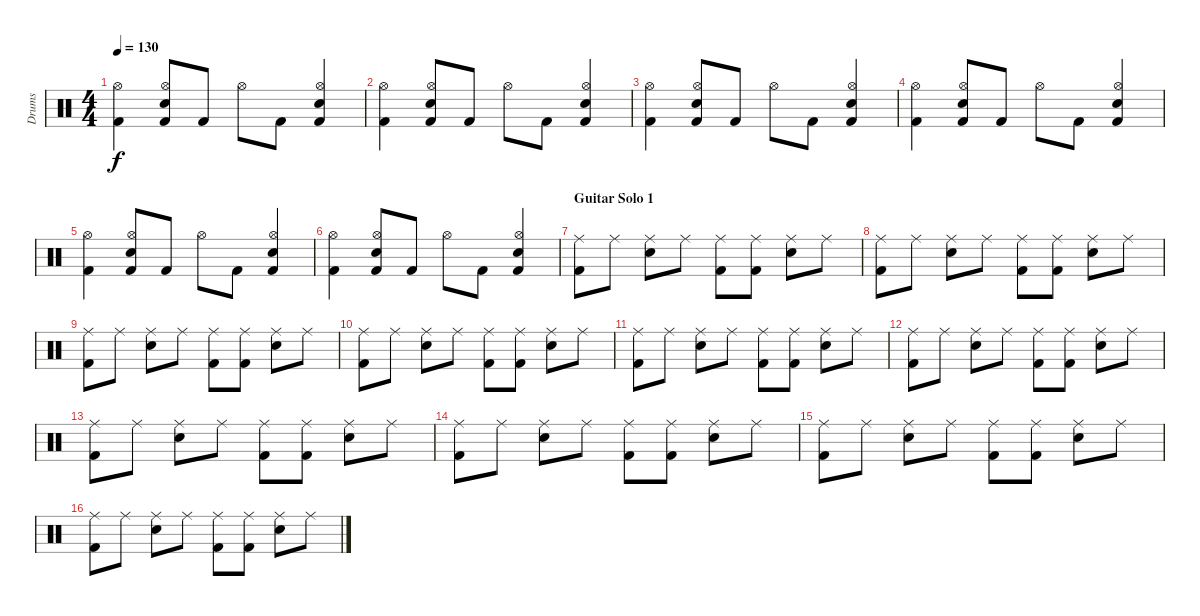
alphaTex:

\track ("Drums" "Drums") {instrument percussion}
\staff {score}
\articulation defaults
\ts (4 4)
\tempo 130
\clef neutral
\ks c
("Kick (hit) 2" "Hi-Hat (open)").4{dy f} ("Kick (hit) 2" "Hi-Hat (open)" "Snare (hit) 2").8 "Kick (hit) 2".8 "Hi-Hat (open)".8 "Kick (hit) 2".8 ("Kick (hit) 2" "Hi-Hat (open)" "Snare (hit) 2").4 |
("Kick (hit) 2" "Hi-Hat (open)").4 ("Kick (hit) 2" "Hi-Hat (open)" "Snare (hit) 2").8 "Kick (hit) 2".8 "Hi-Hat (open)".8 "Kick (hit) 2".8 ("Kick (hit) 2" "Hi-Hat (open)" "Snare (hit) 2").4 |
("Kick (hit) 2" "Hi-Hat (open)").4 ("Kick (hit) 2" "Hi-Hat (open)" "Snare (hit) 2").8 "Kick (hit) 2".8 "Hi-Hat (open)".8 "Kick (hit) 2".8 ("Kick (hit) 2" "Hi-Hat (open)" "Snare (hit) 2").4 |
("Kick (hit) 2" "Hi-Hat (open)").4 ("Kick (hit) 2" "Hi-Hat (open)" "Snare (hit) 2").8 "Kick (hit) 2".8 "Hi-Hat (open)".8 "Kick (hit) 2".8 ("Kick (hit) 2" "Hi-Hat (open)" "Snare (hit) 2").4 |
("Kick (hit) 2" "Hi-Hat (open)").4 ("Kick (hit) 2" "Hi-Hat (open)" "Snare (hit) 2").8 "Kick (hit) 2".8 "Hi-Hat (open)".8 "Kick (hit) 2".8 ("Kick (hit) 2" "Hi-Hat (open)" "Snare (hit) 2").4 |
("Kick (hit) 2" "Hi-Hat (open)").4 ("Kick (hit) 2" "Hi-Hat (open)" "Snare (hit) 2").8 "Kick (hit) 2".8 "Hi-Hat (open)".8 "Kick (hit) 2".8 ("Kick (hit) 2" "Hi-Hat (open)" "Snare (hit) 2").4 |
\section ("" "Guitar Solo 1")
("Kick (hit) 2" "Ride (middle)").8 "Ride (middle)".8 ("Snare (hit) 2" "Ride (middle)").8 "Ride (middle)".8 ("Kick (hit) 2" "Ride (middle)").8 ("Kick (hit) 2" "Ride (middle)").8 ("Snare (hit) 2" "Ride (middle)").8 "Ride (middle)".8 |
("Kick (hit) 2" "Ride (middle)").8 "Ride (middle)".8 ("Snare (hit) 2" "Ride (middle)").8 "Ride (middle)".8 ("Kick (hit) 2" "Ride (middle)").8 ("Kick (hit) 2" "Ride (middle)").8 ("Snare (hit) 2" "Ride (middle)").8 "Ride (middle)".8 |
("Kick (hit) 2" "Ride (middle)").8 "Ride (middle)".8 ("Snare (hit) 2" "Ride (middle)").8 "Ride (middle)".8 ("Kick (hit) 2" "Ride (middle)").8 ("Kick (hit) 2" "Ride (middle)").8 ("Snare (hit) 2" "Ride (middle)").8 "Ride (middle)".8 |
("Kick (hit) 2" "Ride (middle)").8 "Ride (middle)".8 ("Snare (hit) 2" "Ride (middle)").8 "Ride (middle)".8 ("Kick (hit) 2" "Ride (middle)").8 ("Kick (hit) 2" "Ride (middle)").8 ("Snare (hit) 2" "Ride (middle)").8 "Ride (middle)".8 |
("Kick (hit) 2" "Ride (middle)").8 "Ride (middle)".8 ("Snare (hit) 2" "Ride (middle)").8 "Ride (middle)".8 ("Kick (hit) 2" "Ride (middle)").8 ("Kick (hit) 2" "Ride (middle)").8 ("Snare (hit) 2" "Ride (middle)").8 "Ride (middle)".8 |
("Kick (hit) 2" "Ride (middle)").8 "Ride (middle)".8 ("Snare (hit) 2" "Ride (middle)").8 "Ride (middle)".8 ("Kick (hit) 2" "Ride (middle)").8 ("Kick (hit) 2" "Ride (middle)").8 ("Snare (hit) 2" "Ride (middle)").8 "Ride (middle)".8 |
("Kick (hit) 2" "Ride (middle)").8 "Ride (middle)".8 ("Snare (hit) 2" "Ride (middle)").8 "Ride (middle)".8 ("Kick (hit) 2" "Ride (middle)").8 ("Kick (hit) 2" "Ride (middle)").8 ("Snare (hit) 2" "Ride (middle)").8 "Ride (middle)".8 |
("Kick (hit) 2" "Ride (middle)").8 "Ride (middle)".8 ("Snare (hit) 2" "Ride (middle)").8 "Ride (middle)".8 ("Kick (hit) 2" "Ride (middle)").8 ("Kick (hit) 2" "Ride (middle)").8 ("Snare (hit) 2" "Ride (middle)").8 "Ride (middle)".8 |
("Kick (hit) 2" "Ride (middle)").8 "Ride (middle)".8 ("Snare (hit) 2" "Ride (middle)").8 "Ride (middle)".8 ("Kick (hit) 2" "Ride (middle)").8 ("Kick (hit) 2" "Ride (middle)").8 ("Snare (hit) 2" "Ride (middle)").8 "Ride (middle)".8 |
("Kick (hit) 2" "Ride (middle)").8 "Ride (middle)".8 ("Snare (hit) 2" "Ride (middle)").8 "Ride (middle)".8 ("Kick (hit) 2" "Ride (middle)").8 ("Kick (hit) 2" "Ride (middle)").8 ("Snare (hit) 2" "Ride (middle)").8 "Ride (middle)".8
